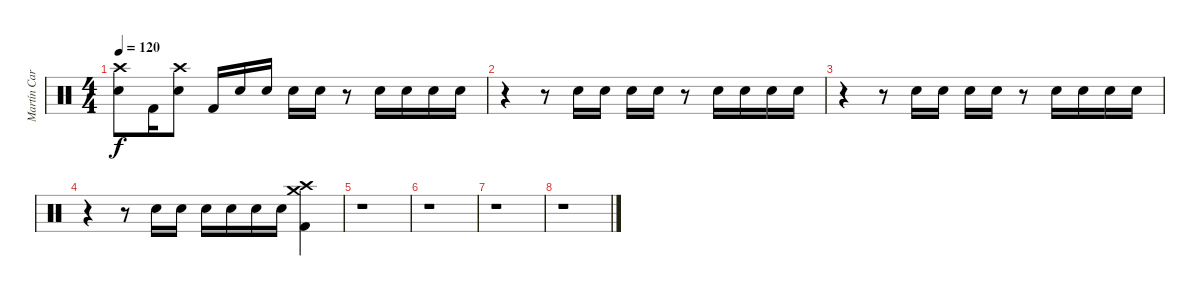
\track ("Martín Carrizo" "Martín Car") {instrument percussion}
\staff {score}
\articulation defaults
\ts (4 4)
\tempo 120
\clef neutral
\ks c
("Crash high (hit)" "Snare (hit) 2").8{dy f} "Kick (hit) 2".16 ("Crash high (hit)" "Snare (hit) 2").8 "Kick (hit) 2".16 "Snare (hit) 2".16 "Snare (hit) 2".16 "Snare (hit) 2".16 "Snare (hit) 2".16 r.8 "Snare (hit) 2".16 "Snare (hit) 2".16 "Snare (hit) 2".16 "Snare (hit) 2".16 |
r.4 r.8 "Snare (hit) 2".16 "Snare (hit) 2".16 "Snare (hit) 2".16 "Snare (hit) 2".16 r.8 "Snare (hit) 2".16 "Snare (hit) 2".16 "Snare (hit) 2".16 "Snare (hit) 2".16 |
r.4 r.8 "Snare (hit) 2".16 "Snare (hit) 2".16 "Snare (hit) 2".16 "Snare (hit) 2".16 r.8 "Snare (hit) 2".16 "Snare (hit) 2".16 "Snare (hit) 2".16 "Snare (hit) 2".16 |
r.4 r.8 "Snare (hit) 2".16 "Snare (hit) 2".16 "Snare (hit) 2".16 "Snare (hit) 2".16 "Snare (hit) 2".16 "Snare (hit) 2".16 ("Crash high (hit)" "Crash medium (hit)" "Kick (hit) 2").4 |
r.1 |
r.1 |
r.1 |
r.1
